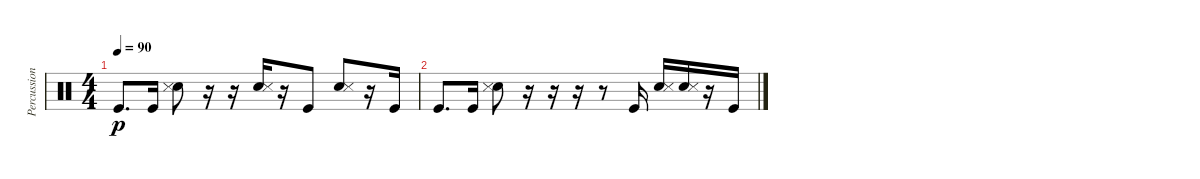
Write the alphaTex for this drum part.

\track ("Percussion" "Percussion") {instrument percussion}
\staff {score}
\articulation defaults
\ts (4 4)
\tempo 90
\clef neutral
\ks c "Kick (hit)".8{d dy p} "Kick (hit)".16
("Hand Clap (hit)" "Snare (side stick) 3").8 r.16 r.16 ("Hand Clap (hit)" "Snare (side stick) 3").16 r.16 "Kick (hit)".8 ("Hand Clap (hit)" "Snare (side stick) 3").8 r.16 "Kick (hit)".16 |
"Kick (hit)".8{d} "Kick (hit)".16 ("Hand Clap (hit)" "Snare (side stick) 3").8 r.16 r.16 r.16 r.8 "Kick (hit)".16 ("Hand Clap (hit)" "Snare (side stick) 3").16 ("Hand Clap (hit)" "Snare (side stick) 3").16 r.16 "Kick (hit)".16
